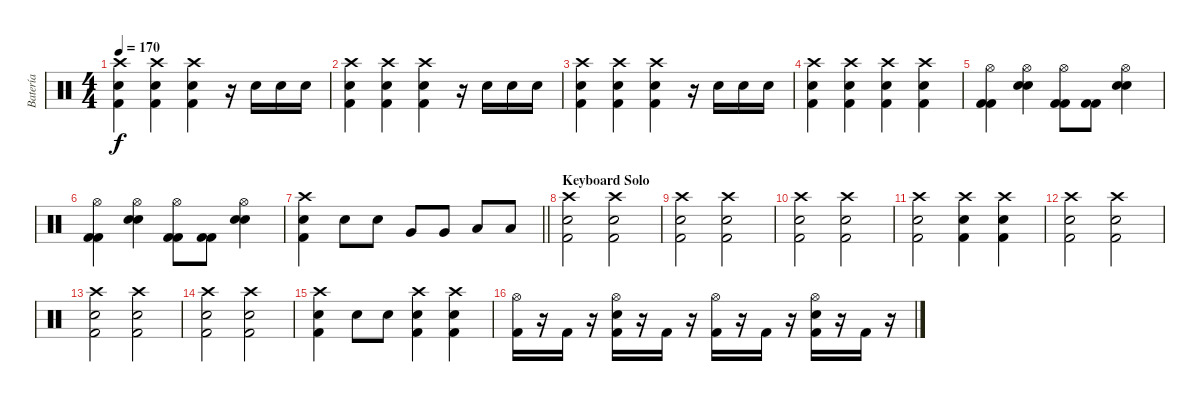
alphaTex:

\track ("Batería" "Batería") {instrument percussion}
\staff {score}
\articulation defaults
\ts (4 4)
\tempo 170
\clef neutral
\ks c
("Crash high (hit)" "Snare (hit) 2" "Kick (hit) 2").4{dy f} ("Crash high (hit)" "Snare (hit) 2" "Kick (hit) 2").4 ("Crash high (hit)" "Snare (hit) 2" "Kick (hit) 2").4 r.16 "Snare (hit) 2".16 "Snare (hit) 2".16 "Snare (hit) 2".16 |
("Crash high (hit)" "Snare (hit) 2" "Kick (hit) 2").4 ("Crash high (hit)" "Snare (hit) 2" "Kick (hit) 2").4 ("Crash high (hit)" "Snare (hit) 2" "Kick (hit) 2").4 r.16 "Snare (hit) 2".16 "Snare (hit) 2".16 "Snare (hit) 2".16 |
("Crash high (hit)" "Snare (hit) 2" "Kick (hit) 2").4 ("Crash high (hit)" "Snare (hit) 2" "Kick (hit) 2").4 ("Crash high (hit)" "Snare (hit) 2" "Kick (hit) 2").4 r.16 "Snare (hit) 2".16 "Snare (hit) 2".16 "Snare (hit) 2".16 |
("Crash high (hit)" "Snare (hit) 2" "Kick (hit) 2").4 ("Crash high (hit)" "Snare (hit) 2" "Kick (hit) 2").4 ("Crash high (hit)" "Snare (hit) 2" "Kick (hit) 2").4 ("Crash high (hit)" "Snare (hit) 2" "Kick (hit) 2").4 |
("Hi-Hat (open)" "Kick (hit) 2" "Kick (hit) 2").4 ("Hi-Hat (open)" "Snare (hit) 2" "Snare (hit) 2").4 ("Hi-Hat (open)" "Kick (hit) 2" "Kick (hit) 2").8 ("Kick (hit) 2" "Kick (hit) 2").8 ("Hi-Hat (open)" "Snare (hit) 2" "Snare (hit) 2").4 |
("Hi-Hat (open)" "Kick (hit) 2" "Kick (hit) 2").4 ("Hi-Hat (open)" "Snare (hit) 2" "Snare (hit) 2").4 ("Hi-Hat (open)" "Kick (hit) 2" "Kick (hit) 2").8 ("Kick (hit) 2" "Kick (hit) 2").8 ("Hi-Hat (open)" "Snare (hit) 2" "Snare (hit) 2").4 |
\barLineRight lightlight
("Crash high (hit)" "Snare (hit) 2" "Kick (hit) 2").4 "Snare (hit) 2".8 "Snare (hit) 2".8 "Very Low Tom (hit)".8 "Very Low Tom (hit)".8 "Low Floor Tom (hit)".8 "Low Floor Tom (hit)".8 |
\section ("" "Keyboard Solo")
("Crash high (hit)" "Snare (hit) 2" "Kick (hit) 2").2 ("Crash high (hit)" "Snare (hit) 2" "Kick (hit) 2").2 |
("Crash high (hit)" "Snare (hit) 2" "Kick (hit) 2").2 ("Crash high (hit)" "Snare (hit) 2" "Kick (hit) 2").2 |
("Crash high (hit)" "Snare (hit) 2" "Kick (hit) 2").2 ("Crash high (hit)" "Snare (hit) 2" "Kick (hit) 2").2 |
("Crash high (hit)" "Snare (hit) 2" "Kick (hit) 2").2 ("Crash high (hit)" "Snare (hit) 2" "Kick (hit) 2").4 ("Crash high (hit)" "Snare (hit) 2" "Kick (hit) 2").4 |
("Crash high (hit)" "Snare (hit) 2" "Kick (hit) 2").2 ("Crash high (hit)" "Snare (hit) 2" "Kick (hit) 2").2 |
("Crash high (hit)" "Snare (hit) 2" "Kick (hit) 2").2 ("Crash high (hit)" "Snare (hit) 2" "Kick (hit) 2").2 |
("Crash high (hit)" "Snare (hit) 2" "Kick (hit) 2").2 ("Crash high (hit)" "Snare (hit) 2" "Kick (hit) 2").2 |
("Crash high (hit)" "Snare (hit) 2" "Kick (hit) 2").4 "Snare (hit) 2".8 "Snare (hit) 2".8 ("Crash high (hit)" "Snare (hit) 2" "Kick (hit) 2").4 ("Crash high (hit)" "Snare (hit) 2" "Kick (hit) 2").4 |
("Hi-Hat (open)" "Kick (hit) 2").16 r.16 "Kick (hit) 2".16 r.16 ("Hi-Hat (open)" "Snare (hit) 2" "Kick (hit) 2").16 r.16 "Kick (hit) 2".16 r.16 ("Hi-Hat (open)" "Kick (hit) 2").16 r.16 "Kick (hit) 2".16 r.16 ("Hi-Hat (open)" "Snare (hit) 2" "Kick (hit) 2").16 r.16 "Kick (hit) 2".16 r.16
